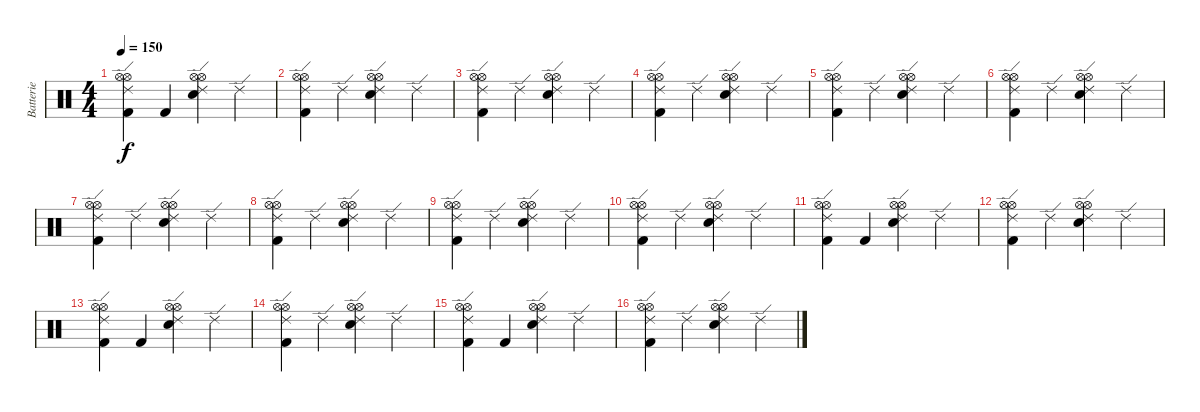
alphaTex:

\track ("Batterie" "Batterie") {instrument percussion}
\staff {score}
\articulation defaults
\ts (4 4)
\tempo 150
\clef neutral
\ks c
("Hi-Hat (open)" "Hi-Hat (open)" "Ride (edge) 2" "Kick (hit) 2").4{dy f} "Kick (hit) 2".4 ("Snare (hit) 2" "Hi-Hat (open)" "Hi-Hat (open)" "Ride (edge) 2").4 "Ride (edge) 2".4 |
\section ("" "")
("Hi-Hat (open)" "Hi-Hat (open)" "Ride (edge) 2" "Kick (hit) 2").4 "Ride (edge) 2".4 ("Snare (hit) 2" "Hi-Hat (open)" "Hi-Hat (open)" "Ride (edge) 2").4 "Ride (edge) 2".4 |
("Hi-Hat (open)" "Hi-Hat (open)" "Ride (edge) 2" "Kick (hit) 2").4 "Ride (edge) 2".4 ("Snare (hit) 2" "Hi-Hat (open)" "Hi-Hat (open)" "Ride (edge) 2").4 "Ride (edge) 2".4 |
("Hi-Hat (open)" "Hi-Hat (open)" "Ride (edge) 2" "Kick (hit) 2").4 "Ride (edge) 2".4 ("Snare (hit) 2" "Hi-Hat (open)" "Hi-Hat (open)" "Ride (edge) 2").4 "Ride (edge) 2".4 |
("Hi-Hat (open)" "Hi-Hat (open)" "Ride (edge) 2" "Kick (hit) 2").4 "Ride (edge) 2".4 ("Snare (hit) 2" "Hi-Hat (open)" "Hi-Hat (open)" "Ride (edge) 2").4 "Ride (edge) 2".4 |
("Hi-Hat (open)" "Hi-Hat (open)" "Ride (edge) 2" "Kick (hit) 2").4 "Ride (edge) 2".4 ("Snare (hit) 2" "Hi-Hat (open)" "Hi-Hat (open)" "Ride (edge) 2").4 "Ride (edge) 2".4 |
("Hi-Hat (open)" "Hi-Hat (open)" "Ride (edge) 2" "Kick (hit) 2").4 "Ride (edge) 2".4 ("Snare (hit) 2" "Hi-Hat (open)" "Hi-Hat (open)" "Ride (edge) 2").4 "Ride (edge) 2".4 |
("Hi-Hat (open)" "Hi-Hat (open)" "Ride (edge) 2" "Kick (hit) 2").4 "Ride (edge) 2".4 ("Snare (hit) 2" "Hi-Hat (open)" "Hi-Hat (open)" "Ride (edge) 2").4 "Ride (edge) 2".4 |
("Hi-Hat (open)" "Hi-Hat (open)" "Ride (edge) 2" "Kick (hit) 2").4 "Ride (edge) 2".4 ("Snare (hit) 2" "Hi-Hat (open)" "Hi-Hat (open)" "Ride (edge) 2").4 "Ride (edge) 2".4 |
\section ("" "")
("Hi-Hat (open)" "Hi-Hat (open)" "Ride (edge) 2" "Kick (hit) 2").4 "Ride (edge) 2".4 ("Snare (hit) 2" "Hi-Hat (open)" "Hi-Hat (open)" "Ride (edge) 2").4 "Ride (edge) 2".4 |
("Hi-Hat (open)" "Hi-Hat (open)" "Ride (edge) 2" "Kick (hit) 2").4 "Kick (hit) 2".4 ("Snare (hit) 2" "Hi-Hat (open)" "Hi-Hat (open)" "Ride (edge) 2").4 "Ride (edge) 2".4 |
("Hi-Hat (open)" "Hi-Hat (open)" "Ride (edge) 2" "Kick (hit) 2").4 "Ride (edge) 2".4 ("Snare (hit) 2" "Hi-Hat (open)" "Hi-Hat (open)" "Ride (edge) 2").4 "Ride (edge) 2".4 |
("Hi-Hat (open)" "Hi-Hat (open)" "Ride (edge) 2" "Kick (hit) 2").4 "Kick (hit) 2".4 ("Snare (hit) 2" "Hi-Hat (open)" "Hi-Hat (open)" "Ride (edge) 2").4 "Ride (edge) 2".4 |
("Hi-Hat (open)" "Hi-Hat (open)" "Ride (edge) 2" "Kick (hit) 2").4 "Ride (edge) 2".4 ("Snare (hit) 2" "Hi-Hat (open)" "Hi-Hat (open)" "Ride (edge) 2").4 "Ride (edge) 2".4 |
("Hi-Hat (open)" "Hi-Hat (open)" "Ride (edge) 2" "Kick (hit) 2").4 "Kick (hit) 2".4 ("Snare (hit) 2" "Hi-Hat (open)" "Hi-Hat (open)" "Ride (edge) 2").4 "Ride (edge) 2".4 |
("Hi-Hat (open)" "Hi-Hat (open)" "Ride (edge) 2" "Kick (hit) 2").4 "Ride (edge) 2".4 ("Snare (hit) 2" "Hi-Hat (open)" "Hi-Hat (open)" "Ride (edge) 2").4 "Ride (edge) 2".4
